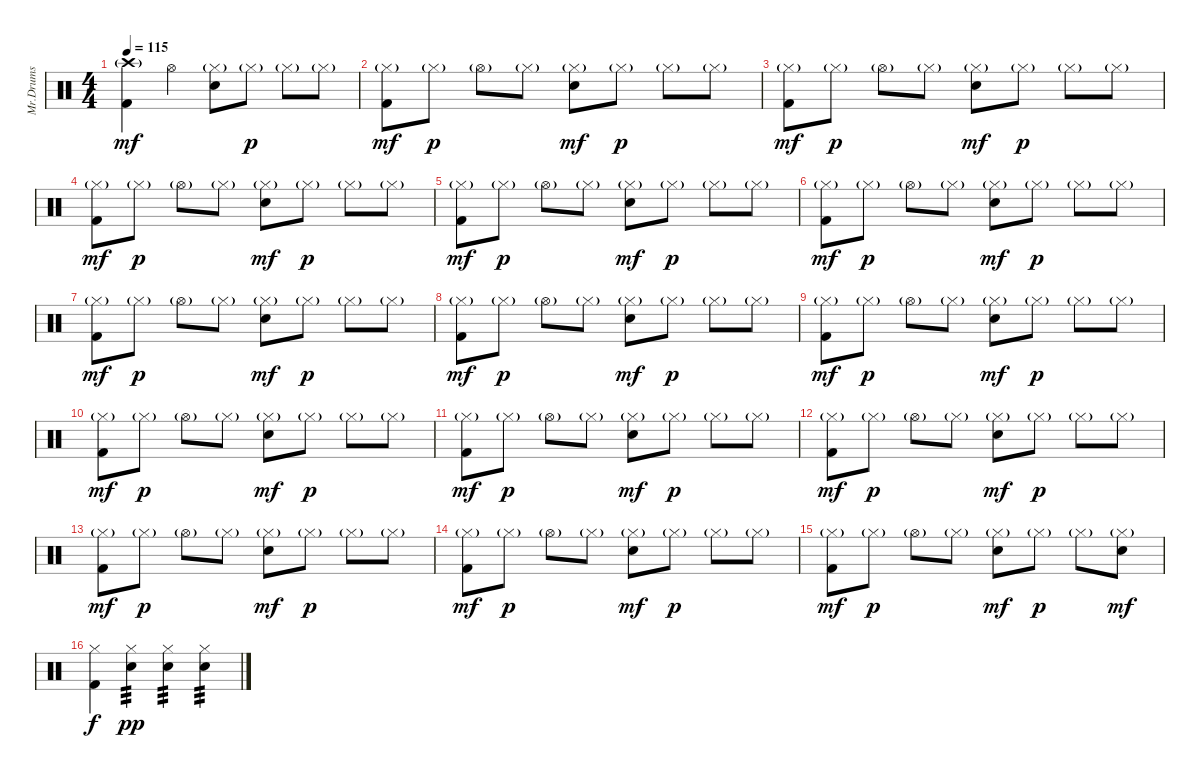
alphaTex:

\track ("Mr.Drums" "Mr.Drums") {instrument percussion}
\staff {score}
\articulation defaults
\ts (4 4)
\tempo 115
\clef neutral
\ks c
("Crash high (hit)"{g} "Kick (hit) 2").4{dy mf} "Hi-Hat (open)".4 ("Hi-Hat (closed)"{g} "Electric Snare (hit)").8 "Hi-Hat (closed)"{g}.8{dy p} "Hi-Hat (closed)"{g}.8 "Hi-Hat (closed)"{g}.8 |
("Hi-Hat (closed)"{g} "Kick (hit) 2").8{dy mf} "Hi-Hat (closed)"{g}.8{dy p} "Hi-Hat (open)"{g}.8 "Hi-Hat (closed)"{g}.8 ("Hi-Hat (closed)"{g} "Electric Snare (hit)").8{dy mf} "Hi-Hat (closed)"{g}.8{dy p} "Hi-Hat (closed)"{g}.8 "Hi-Hat (closed)"{g}.8 |
("Hi-Hat (closed)"{g} "Kick (hit) 2").8{dy mf} "Hi-Hat (closed)"{g}.8{dy p} "Hi-Hat (open)"{g}.8 "Hi-Hat (closed)"{g}.8 ("Hi-Hat (closed)"{g} "Electric Snare (hit)").8{dy mf} "Hi-Hat (closed)"{g}.8{dy p} "Hi-Hat (closed)"{g}.8 "Hi-Hat (closed)"{g}.8 |
("Hi-Hat (closed)"{g} "Kick (hit) 2").8{dy mf} "Hi-Hat (closed)"{g}.8{dy p} "Hi-Hat (open)"{g}.8 "Hi-Hat (closed)"{g}.8 ("Hi-Hat (closed)"{g} "Electric Snare (hit)").8{dy mf} "Hi-Hat (closed)"{g}.8{dy p} "Hi-Hat (closed)"{g}.8 "Hi-Hat (closed)"{g}.8 |
("Hi-Hat (closed)"{g} "Kick (hit) 2").8{dy mf} "Hi-Hat (closed)"{g}.8{dy p} "Hi-Hat (open)"{g}.8 "Hi-Hat (closed)"{g}.8 ("Hi-Hat (closed)"{g} "Electric Snare (hit)").8{dy mf} "Hi-Hat (closed)"{g}.8{dy p} "Hi-Hat (closed)"{g}.8 "Hi-Hat (closed)"{g}.8 |
("Hi-Hat (closed)"{g} "Kick (hit) 2").8{dy mf} "Hi-Hat (closed)"{g}.8{dy p} "Hi-Hat (open)"{g}.8 "Hi-Hat (closed)"{g}.8 ("Hi-Hat (closed)"{g} "Electric Snare (hit)").8{dy mf} "Hi-Hat (closed)"{g}.8{dy p} "Hi-Hat (closed)"{g}.8 "Hi-Hat (closed)"{g}.8 |
("Hi-Hat (closed)"{g} "Kick (hit) 2").8{dy mf} "Hi-Hat (closed)"{g}.8{dy p} "Hi-Hat (open)"{g}.8 "Hi-Hat (closed)"{g}.8 ("Hi-Hat (closed)"{g} "Electric Snare (hit)").8{dy mf} "Hi-Hat (closed)"{g}.8{dy p} "Hi-Hat (closed)"{g}.8 "Hi-Hat (closed)"{g}.8 |
("Hi-Hat (closed)"{g} "Kick (hit) 2").8{dy mf} "Hi-Hat (closed)"{g}.8{dy p} "Hi-Hat (open)"{g}.8 "Hi-Hat (closed)"{g}.8 ("Hi-Hat (closed)"{g} "Electric Snare (hit)").8{dy mf} "Hi-Hat (closed)"{g}.8{dy p} "Hi-Hat (closed)"{g}.8 "Hi-Hat (closed)"{g}.8 |
("Hi-Hat (closed)"{g} "Kick (hit) 2").8{dy mf} "Hi-Hat (closed)"{g}.8{dy p} "Hi-Hat (open)"{g}.8 "Hi-Hat (closed)"{g}.8 ("Hi-Hat (closed)"{g} "Electric Snare (hit)").8{dy mf} "Hi-Hat (closed)"{g}.8{dy p} "Hi-Hat (closed)"{g}.8 "Hi-Hat (closed)"{g}.8 |
("Hi-Hat (closed)"{g} "Kick (hit) 2").8{dy mf} "Hi-Hat (closed)"{g}.8{dy p} "Hi-Hat (open)"{g}.8 "Hi-Hat (closed)"{g}.8 ("Hi-Hat (closed)"{g} "Electric Snare (hit)").8{dy mf} "Hi-Hat (closed)"{g}.8{dy p} "Hi-Hat (closed)"{g}.8 "Hi-Hat (closed)"{g}.8 |
("Hi-Hat (closed)"{g} "Kick (hit) 2").8{dy mf} "Hi-Hat (closed)"{g}.8{dy p} "Hi-Hat (open)"{g}.8 "Hi-Hat (closed)"{g}.8 ("Hi-Hat (closed)"{g} "Electric Snare (hit)").8{dy mf} "Hi-Hat (closed)"{g}.8{dy p} "Hi-Hat (closed)"{g}.8 "Hi-Hat (closed)"{g}.8 |
("Hi-Hat (closed)"{g} "Kick (hit) 2").8{dy mf} "Hi-Hat (closed)"{g}.8{dy p} "Hi-Hat (open)"{g}.8 "Hi-Hat (closed)"{g}.8 ("Hi-Hat (closed)"{g} "Electric Snare (hit)").8{dy mf} "Hi-Hat (closed)"{g}.8{dy p} "Hi-Hat (closed)"{g}.8 "Hi-Hat (closed)"{g}.8 |
("Hi-Hat (closed)"{g} "Kick (hit) 2").8{dy mf} "Hi-Hat (closed)"{g}.8{dy p} "Hi-Hat (open)"{g}.8 "Hi-Hat (closed)"{g}.8 ("Hi-Hat (closed)"{g} "Electric Snare (hit)").8{dy mf} "Hi-Hat (closed)"{g}.8{dy p} "Hi-Hat (closed)"{g}.8 "Hi-Hat (closed)"{g}.8 |
("Hi-Hat (closed)"{g} "Kick (hit) 2").8{dy mf} "Hi-Hat (closed)"{g}.8{dy p} "Hi-Hat (open)"{g}.8 "Hi-Hat (closed)"{g}.8 ("Hi-Hat (closed)"{g} "Electric Snare (hit)").8{dy mf} "Hi-Hat (closed)"{g}.8{dy p} "Hi-Hat (closed)"{g}.8 "Hi-Hat (closed)"{g}.8 |
("Hi-Hat (closed)"{g} "Kick (hit) 2").8{dy mf} "Hi-Hat (closed)"{g}.8{dy p} "Hi-Hat (open)"{g}.8 "Hi-Hat (closed)"{g}.8 ("Hi-Hat (closed)"{g} "Electric Snare (hit)").8{dy mf} "Hi-Hat (closed)"{g}.8{dy p} "Hi-Hat (closed)"{g}.8 ("Hi-Hat (closed)"{g} "Electric Snare (hit)").8{dy mf} |
("Hi-Hat (closed)" "Kick (hit) 2").4{dy f} ("Hi-Hat (closed)" "Electric Snare (hit)").4{tp 3 dy pp} ("Hi-Hat (closed)" "Electric Snare (hit)").4{tp 3} ("Hi-Hat (closed)" "Electric Snare (hit)").4{tp 3}
